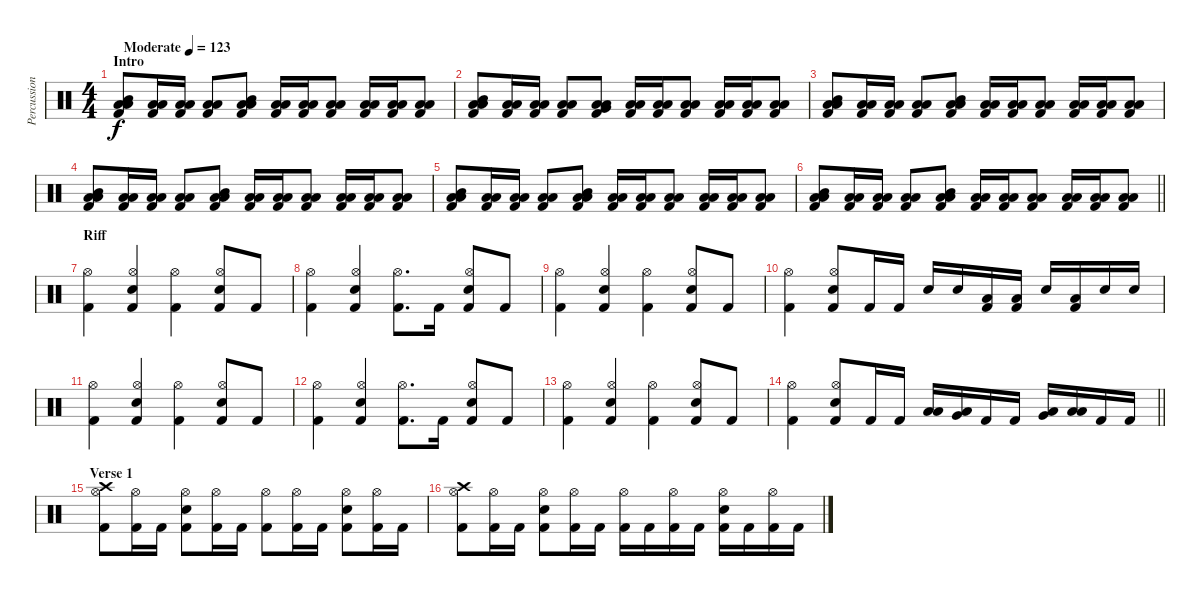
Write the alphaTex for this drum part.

\track ("Percussion" "Percussion") {instrument percussion}
\staff {score}
\articulation defaults
\ts (4 4)
\section ("" "Intro")
\tempo (123 "Moderate")
\clef neutral
\ks c
("Low Floor Tom (hit)" "Low Tom (hit)" "Mid Tom (hit)" "Kick (hit) 2").8{dy f} ("Low Floor Tom (hit)" "Low Tom (hit)" "Kick (hit) 2").16 ("Low Floor Tom (hit)" "Low Tom (hit)" "Kick (hit) 2").16 ("Low Floor Tom (hit)" "Low Tom (hit)" "Kick (hit) 2").8 ("Low Floor Tom (hit)" "Low Tom (hit)" "Mid Tom (hit)" "Kick (hit) 2").8 ("Low Floor Tom (hit)" "Low Tom (hit)" "Kick (hit) 2").16 ("Low Floor Tom (hit)" "Low Tom (hit)" "Kick (hit) 2").16 ("Low Floor Tom (hit)" "Low Tom (hit)" "Kick (hit) 2").8 ("Low Floor Tom (hit)" "Low Tom (hit)" "Kick (hit) 2").16 ("Low Floor Tom (hit)" "Low Tom (hit)" "Kick (hit) 2").16 ("Low Floor Tom (hit)" "Low Tom (hit)" "Kick (hit) 2").8 |
("Low Floor Tom (hit)" "Low Tom (hit)" "Mid Tom (hit)" "Kick (hit) 2").8 ("Low Floor Tom (hit)" "Low Tom (hit)" "Kick (hit) 2").16 ("Low Floor Tom (hit)" "Low Tom (hit)" "Kick (hit) 2").16 ("Low Floor Tom (hit)" "Low Tom (hit)" "Kick (hit) 2").8 ("Low Floor Tom (hit)" "Low Tom (hit)" "Very Low Tom (hit)" "Kick (hit) 2").8 ("Low Floor Tom (hit)" "Low Tom (hit)" "Kick (hit) 2").16 ("Low Floor Tom (hit)" "Low Tom (hit)" "Kick (hit) 2").16 ("Low Floor Tom (hit)" "Low Tom (hit)" "Kick (hit) 2").8 ("Low Floor Tom (hit)" "Low Tom (hit)" "Kick (hit) 2").16 ("Low Floor Tom (hit)" "Low Tom (hit)" "Kick (hit) 2").16 ("Low Floor Tom (hit)" "Low Tom (hit)" "Kick (hit) 2").8 |
("Low Floor Tom (hit)" "Low Tom (hit)" "Mid Tom (hit)" "Kick (hit) 2").8 ("Low Floor Tom (hit)" "Low Tom (hit)" "Kick (hit) 2").16 ("Low Floor Tom (hit)" "Low Tom (hit)" "Kick (hit) 2").16 ("Low Floor Tom (hit)" "Low Tom (hit)" "Kick (hit) 2").8 ("Low Floor Tom (hit)" "Low Tom (hit)" "Mid Tom (hit)" "Kick (hit) 2").8 ("Low Floor Tom (hit)" "Low Tom (hit)" "Kick (hit) 2").16 ("Low Floor Tom (hit)" "Low Tom (hit)" "Kick (hit) 2").16 ("Low Floor Tom (hit)" "Low Tom (hit)" "Kick (hit) 2").8 ("Low Floor Tom (hit)" "Low Tom (hit)" "Kick (hit) 2").16 ("Low Floor Tom (hit)" "Low Tom (hit)" "Kick (hit) 2").16 ("Low Floor Tom (hit)" "Low Tom (hit)" "Kick (hit) 2").8 |
("Low Floor Tom (hit)" "Low Tom (hit)" "Mid Tom (hit)" "Kick (hit) 2").8 ("Low Floor Tom (hit)" "Low Tom (hit)" "Kick (hit) 2").16 ("Low Floor Tom (hit)" "Low Tom (hit)" "Kick (hit) 2").16 ("Low Floor Tom (hit)" "Low Tom (hit)" "Kick (hit) 2").8 ("Low Floor Tom (hit)" "Low Tom (hit)" "Mid Tom (hit)" "Kick (hit) 2").8 ("Low Floor Tom (hit)" "Low Tom (hit)" "Kick (hit) 2").16 ("Low Floor Tom (hit)" "Low Tom (hit)" "Kick (hit) 2").16 ("Low Floor Tom (hit)" "Low Tom (hit)" "Kick (hit) 2").8 ("Low Floor Tom (hit)" "Low Tom (hit)" "Kick (hit) 2").16 ("Low Floor Tom (hit)" "Low Tom (hit)" "Kick (hit) 2").16 ("Low Floor Tom (hit)" "Low Tom (hit)" "Kick (hit) 2").8 |
("Low Floor Tom (hit)" "Low Tom (hit)" "Mid Tom (hit)" "Kick (hit) 2").8 ("Low Floor Tom (hit)" "Low Tom (hit)" "Kick (hit) 2").16 ("Low Floor Tom (hit)" "Low Tom (hit)" "Kick (hit) 2").16 ("Low Floor Tom (hit)" "Low Tom (hit)" "Kick (hit) 2").8 ("Low Floor Tom (hit)" "Low Tom (hit)" "Mid Tom (hit)" "Kick (hit) 2").8 ("Low Floor Tom (hit)" "Low Tom (hit)" "Kick (hit) 2").16 ("Low Floor Tom (hit)" "Low Tom (hit)" "Kick (hit) 2").16 ("Low Floor Tom (hit)" "Low Tom (hit)" "Kick (hit) 2").8 ("Low Floor Tom (hit)" "Low Tom (hit)" "Kick (hit) 2").16 ("Low Floor Tom (hit)" "Low Tom (hit)" "Kick (hit) 2").16 ("Low Floor Tom (hit)" "Low Tom (hit)" "Kick (hit) 2").8 |
\barLineRight lightlight
("Low Floor Tom (hit)" "Low Tom (hit)" "Mid Tom (hit)" "Kick (hit) 2").8 ("Low Floor Tom (hit)" "Low Tom (hit)" "Kick (hit) 2").16 ("Low Floor Tom (hit)" "Low Tom (hit)" "Kick (hit) 2").16 ("Low Floor Tom (hit)" "Low Tom (hit)" "Kick (hit) 2").8 ("Low Floor Tom (hit)" "Low Tom (hit)" "Mid Tom (hit)" "Kick (hit) 2").8 ("Low Floor Tom (hit)" "Low Tom (hit)" "Kick (hit) 2").16 ("Low Floor Tom (hit)" "Low Tom (hit)" "Kick (hit) 2").16 ("Low Floor Tom (hit)" "Low Tom (hit)" "Kick (hit) 2").8 ("Low Floor Tom (hit)" "Low Tom (hit)" "Kick (hit) 2").16 ("Low Floor Tom (hit)" "Low Tom (hit)" "Kick (hit) 2").16 ("Low Floor Tom (hit)" "Low Tom (hit)" "Kick (hit) 2").8 |
\section ("" "Riff")
("Hi-Hat (open)" "Kick (hit) 2").4 ("Hi-Hat (open)" "Snare (hit) 2" "Kick (hit) 2").4 ("Hi-Hat (open)" "Kick (hit) 2").4 ("Hi-Hat (open)" "Snare (hit) 2" "Kick (hit) 2").8 "Kick (hit) 2".8 |
("Hi-Hat (open)" "Kick (hit) 2").4 ("Hi-Hat (open)" "Snare (hit) 2" "Kick (hit) 2").4 ("Hi-Hat (open)" "Kick (hit) 2").8{d} "Kick (hit) 2".16 ("Hi-Hat (open)" "Snare (hit) 2" "Kick (hit) 2").8 "Kick (hit) 2".8 |
("Hi-Hat (open)" "Kick (hit) 2").4 ("Hi-Hat (open)" "Snare (hit) 2" "Kick (hit) 2").4 ("Hi-Hat (open)" "Kick (hit) 2").4 ("Hi-Hat (open)" "Snare (hit) 2" "Kick (hit) 2").8 "Kick (hit) 2".8 |
("Hi-Hat (open)" "Kick (hit) 2").4 ("Hi-Hat (open)" "Snare (hit) 2" "Kick (hit) 2").8 "Kick (hit) 2".16 "Kick (hit) 2".16 "Snare (hit) 2".16 "Snare (hit) 2".16 ("Low Floor Tom (hit)" "Kick (hit) 2").16 ("Low Floor Tom (hit)" "Kick (hit) 2").16 "Snare (hit) 2".16 ("Low Floor Tom (hit)" "Kick (hit) 2").16 "Snare (hit) 2".16 "Snare (hit) 2".16 |
("Hi-Hat (open)" "Kick (hit) 2").4 ("Hi-Hat (open)" "Snare (hit) 2" "Kick (hit) 2").4 ("Hi-Hat (open)" "Kick (hit) 2").4 ("Hi-Hat (open)" "Snare (hit) 2" "Kick (hit) 2").8 "Kick (hit) 2".8 |
("Hi-Hat (open)" "Kick (hit) 2").4 ("Hi-Hat (open)" "Snare (hit) 2" "Kick (hit) 2").4 ("Hi-Hat (open)" "Kick (hit) 2").8{d} "Kick (hit) 2".16 ("Hi-Hat (open)" "Snare (hit) 2" "Kick (hit) 2").8 "Kick (hit) 2".8 |
("Hi-Hat (open)" "Kick (hit) 2").4 ("Hi-Hat (open)" "Snare (hit) 2" "Kick (hit) 2").4 ("Hi-Hat (open)" "Kick (hit) 2").4 ("Hi-Hat (open)" "Snare (hit) 2" "Kick (hit) 2").8 "Kick (hit) 2".8 |
\barLineRight lightlight
("Hi-Hat (open)" "Kick (hit) 2").4 ("Hi-Hat (open)" "Snare (hit) 2" "Kick (hit) 2").8 "Kick (hit) 2".16 "Kick (hit) 2".16 ("Low Floor Tom (hit)" "Low Tom (hit)").16 ("Low Floor Tom (hit)" "Very Low Tom (hit)").16 "Kick (hit) 2".16 "Kick (hit) 2".16 ("Low Floor Tom (hit)" "Very Low Tom (hit)").16 ("Low Floor Tom (hit)" "Low Floor Tom (hit)").16 "Kick (hit) 2".16 "Kick (hit) 2".16 |
\section ("" "Verse 1")
("Hi-Hat (open)" "Kick (hit) 2" "Crash high (hit)").8 ("Hi-Hat (open)" "Kick (hit) 2").16 "Kick (hit) 2".16 ("Hi-Hat (open)" "Snare (hit) 2" "Kick (hit) 2").8 ("Hi-Hat (open)" "Kick (hit) 2").16 "Kick (hit) 2".16 ("Hi-Hat (open)" "Kick (hit) 2").8 ("Hi-Hat (open)" "Kick (hit) 2").16 "Kick (hit) 2".16 ("Hi-Hat (open)" "Snare (hit) 2" "Kick (hit) 2").8 ("Hi-Hat (open)" "Kick (hit) 2").16 "Kick (hit) 2".16 |
("Hi-Hat (open)" "Kick (hit) 2" "Crash high (hit)").8 ("Hi-Hat (open)" "Kick (hit) 2").16 "Kick (hit) 2".16 ("Hi-Hat (open)" "Snare (hit) 2" "Kick (hit) 2").8 ("Hi-Hat (open)" "Kick (hit) 2").16 "Kick (hit) 2".16 ("Hi-Hat (open)" "Kick (hit) 2").16 "Kick (hit) 2".16 ("Hi-Hat (open)" "Kick (hit) 2").16 "Kick (hit) 2".16 ("Hi-Hat (open)" "Snare (hit) 2" "Kick (hit) 2").16 "Kick (hit) 2".16 ("Hi-Hat (open)" "Kick (hit) 2").16 "Kick (hit) 2".16
